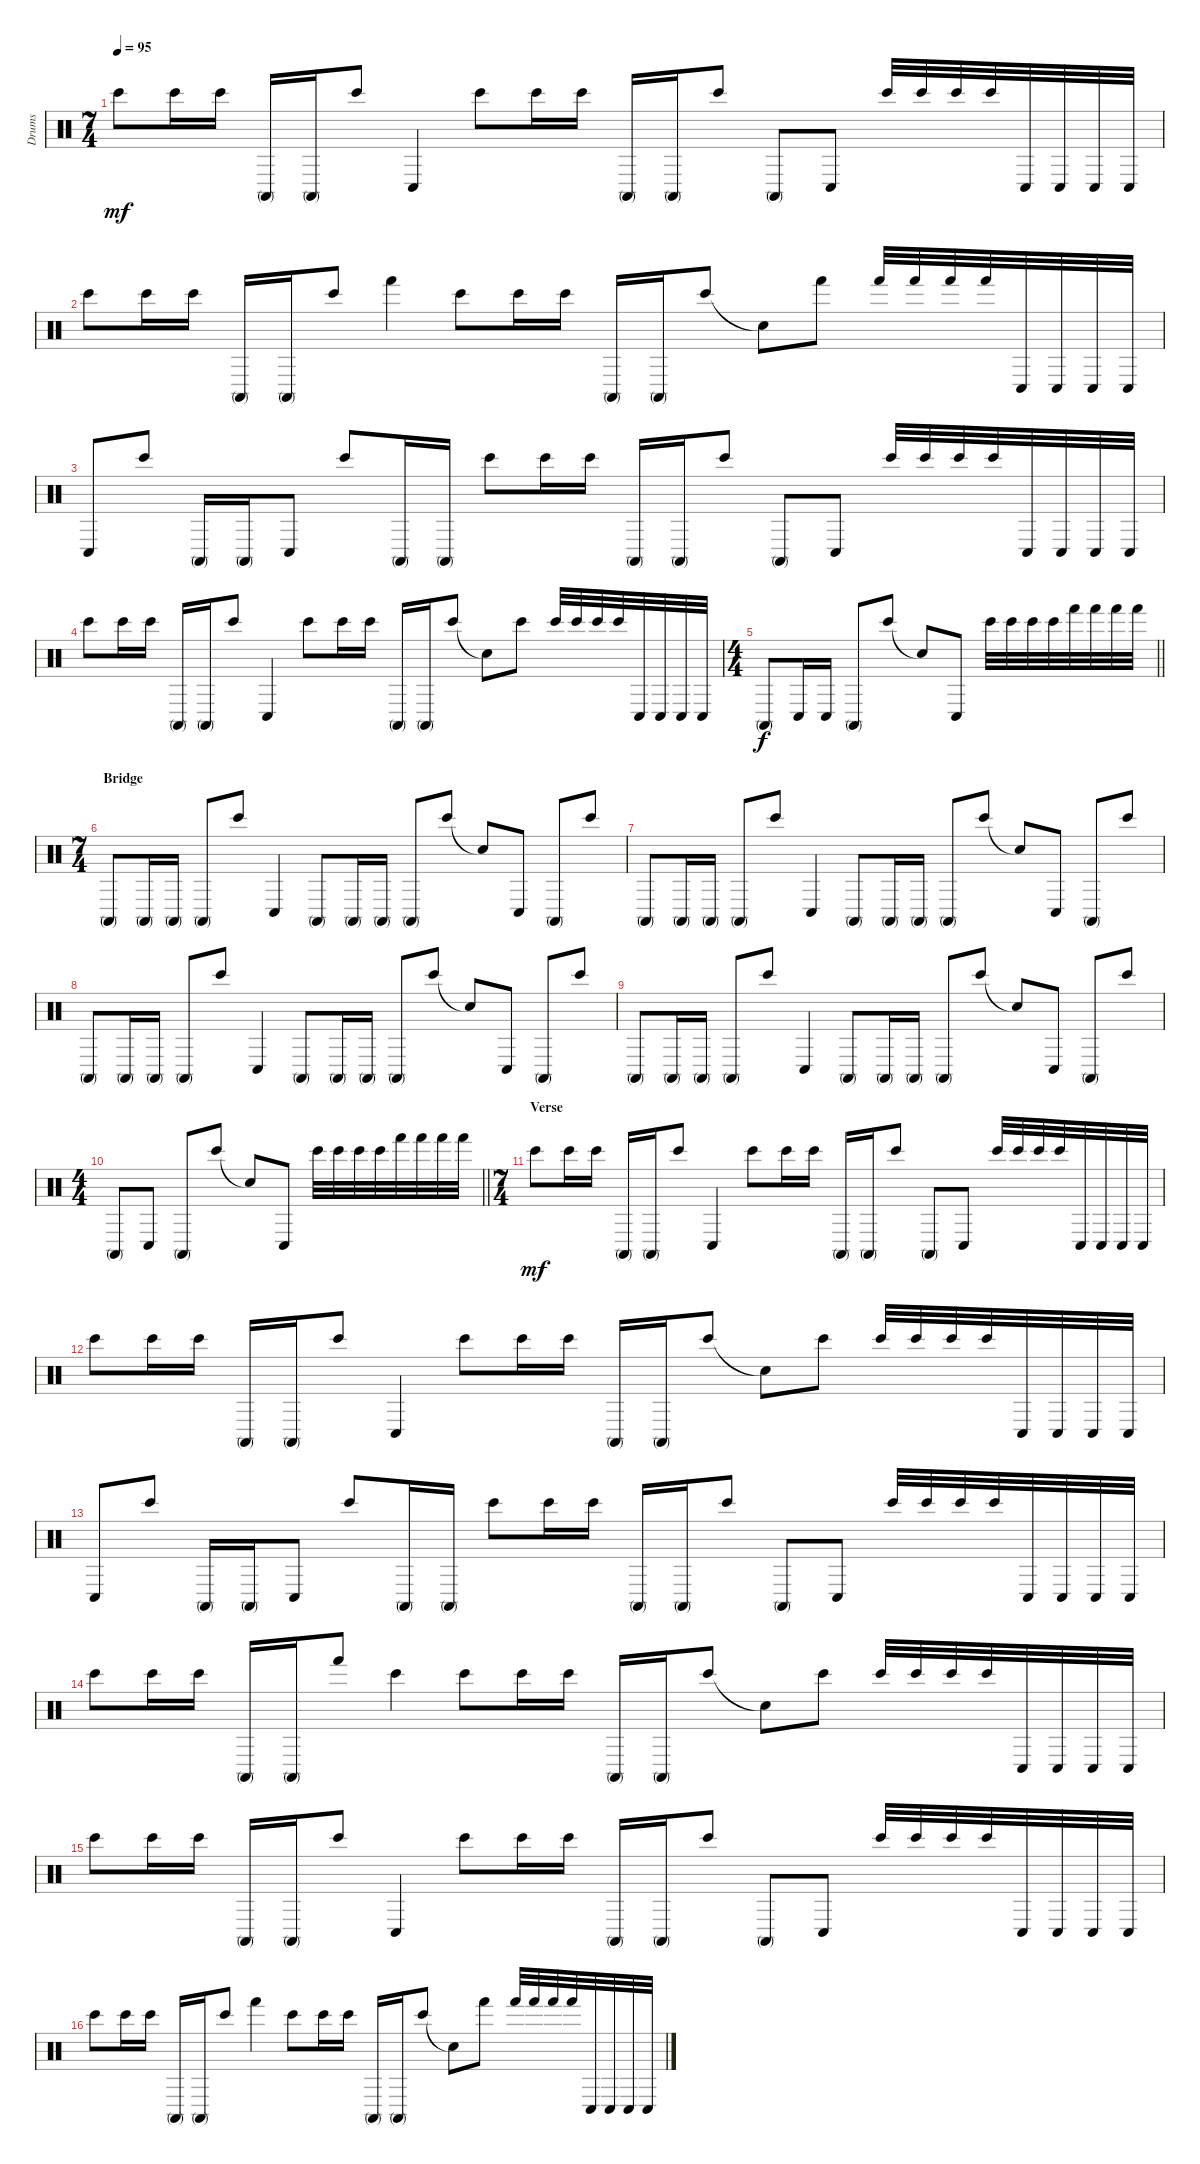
\track ("Drums" "Drums") {instrument percussion}
\staff {score}
\articulation defaults
\ts (7 4)
\tempo 95
\clef neutral
\ks c "Bongo High (hit)".8{dy mf} "Bongo High (hit)".16 "Bongo High (hit)".16 "Conga high (mute)".16 "Conga high (mute)".16 "Bongo High (hit)".8 "Conga low (hit)".4 "Bongo High (hit)".8 "Bongo High (hit)".16 "Bongo High (hit)".16 "Conga high (mute)".16 "Conga high (mute)".16 "Bongo High (hit)".8 "Conga high (mute)".8 "Conga low (hit)".8 "Bongo High (hit)".32 "Bongo High (hit)".32 "Bongo High (hit)".32 "Bongo High (hit)".32 "Conga low (hit)".32 "Conga low (hit)".32 "Conga low (hit)".32 "Conga low (hit)".32
|
"Bongo High (hit)".8 "Bongo High (hit)".16 "Bongo High (hit)".16 "Conga high (mute)".16 "Conga high (mute)".16 "Bongo High (hit)".8 "Hand (hit)".4 "Bongo High (hit)".8 "Bongo High (hit)".16 "Bongo High (hit)".16 "Conga high (mute)".16 "Conga high (mute)".16 "Bongo High (hit)".8 "Snare (hit)"{t}.8 "Hand (hit)".8 "Hand (hit)".32 "Hand (hit)".32 "Hand (hit)".32 "Hand (hit)".32 "Conga low (hit)".32 "Conga low (hit)".32 "Conga low (hit)".32 "Conga low (hit)".32 |
"Conga low (hit)".8 "Bongo High (hit)".8 "Conga high (mute)".16 "Conga high (mute)".16 "Conga low (hit)".8 "Bongo High (hit)".8 "Conga high (mute)".16 "Conga high (mute)".16 "Bongo High (hit)".8 "Bongo High (hit)".16 "Bongo High (hit)".16 "Conga high (mute)".16 "Conga high (mute)".16 "Bongo High (hit)".8 "Conga high (mute)".8 "Conga low (hit)".8 "Bongo High (hit)".32 "Bongo High (hit)".32 "Bongo High (hit)".32 "Bongo High (hit)".32 "Conga low (hit)".32 "Conga low (hit)".32 "Conga low (hit)".32 "Conga low (hit)".32 |
"Bongo High (hit)".8 "Bongo High (hit)".16 "Bongo High (hit)".16 "Conga high (mute)".16 "Conga high (mute)".16 "Bongo High (hit)".8 "Conga low (hit)".4 "Bongo High (hit)".8 "Bongo High (hit)".16 "Bongo High (hit)".16 "Conga high (mute)".16 "Conga high (mute)".16 "Bongo High (hit)".8 "Snare (hit)"{t}.8 "Bongo High (hit)".8 "Bongo High (hit)".32 "Bongo High (hit)".32 "Bongo High (hit)".32 "Bongo High (hit)".32 "Conga low (hit)".32 "Conga low (hit)".32 "Conga low (hit)".32 "Conga low (hit)".32 |
\ts (4 4)
\barLineRight lightlight "Conga high (mute)".8{dy f} "Conga low (hit)".16 "Conga low (hit)".16 "Conga high (mute)".8 "Bongo High (hit)".8 "Snare (hit)"{t}.8 "Conga low (hit)".8 "Bongo High (hit)".32 "Bongo High (hit)".32 "Bongo High (hit)".32 "Bongo High (hit)".32 "Hand (hit)".32 "Hand (hit)".32 "Hand (hit)".32 "Hand (hit)".32
|
\ts (7 4)
\section ("" "Bridge")
"Conga high (mute)".8 "Conga high (mute)".16 "Conga high (mute)".16 "Conga high (mute)".8 "Bongo High (hit)".8 "Conga low (hit)".4 "Conga high (mute)".8 "Conga high (mute)".16 "Conga high (mute)".16 "Conga high (mute)".8 "Bongo High (hit)".8 "Snare (hit)"{t}.8 "Conga low (hit)".8 "Conga high (mute)".8 "Bongo High (hit)".8 |
"Conga high (mute)".8 "Conga high (mute)".16 "Conga high (mute)".16 "Conga high (mute)".8 "Bongo High (hit)".8 "Conga low (hit)".4 "Conga high (mute)".8 "Conga high (mute)".16 "Conga high (mute)".16 "Conga high (mute)".8 "Bongo High (hit)".8 "Snare (hit)"{t}.8 "Conga low (hit)".8 "Conga high (mute)".8 "Bongo High (hit)".8 |
"Conga high (mute)".8 "Conga high (mute)".16 "Conga high (mute)".16 "Conga high (mute)".8 "Bongo High (hit)".8 "Conga low (hit)".4 "Conga high (mute)".8 "Conga high (mute)".16 "Conga high (mute)".16 "Conga high (mute)".8 "Bongo High (hit)".8 "Snare (hit)"{t}.8 "Conga low (hit)".8 "Conga high (mute)".8 "Bongo High (hit)".8 |
"Conga high (mute)".8 "Conga high (mute)".16 "Conga high (mute)".16 "Conga high (mute)".8 "Bongo High (hit)".8 "Conga low (hit)".4 "Conga high (mute)".8 "Conga high (mute)".16 "Conga high (mute)".16 "Conga high (mute)".8 "Bongo High (hit)".8 "Snare (hit)"{t}.8 "Conga low (hit)".8 "Conga high (mute)".8 "Bongo High (hit)".8 |
\ts (4 4)
\barLineRight lightlight "Conga high (mute)".8 "Conga low (hit)".8 "Conga high (mute)".8 "Bongo High (hit)".8 "Snare (hit)"{t}.8 "Conga low (hit)".8 "Bongo High (hit)".32 "Bongo High (hit)".32 "Bongo High (hit)".32 "Bongo High (hit)".32 "Hand (hit)".32 "Hand (hit)".32 "Hand (hit)".32 "Hand (hit)".32
|
\ts (7 4)
\section ("" "Verse")
"Bongo High (hit)".8{dy mf} "Bongo High (hit)".16 "Bongo High (hit)".16 "Conga high (mute)".16 "Conga high (mute)".16 "Bongo High (hit)".8 "Conga low (hit)".4 "Bongo High (hit)".8 "Bongo High (hit)".16 "Bongo High (hit)".16 "Conga high (mute)".16 "Conga high (mute)".16 "Bongo High (hit)".8 "Conga high (mute)".8 "Conga low (hit)".8 "Bongo High (hit)".32 "Bongo High (hit)".32 "Bongo High (hit)".32 "Bongo High (hit)".32 "Conga low (hit)".32 "Conga low (hit)".32 "Conga low (hit)".32 "Conga low (hit)".32 |
"Bongo High (hit)".8 "Bongo High (hit)".16 "Bongo High (hit)".16 "Conga high (mute)".16 "Conga high (mute)".16 "Bongo High (hit)".8 "Conga low (hit)".4 "Bongo High (hit)".8 "Bongo High (hit)".16 "Bongo High (hit)".16 "Conga high (mute)".16 "Conga high (mute)".16 "Bongo High (hit)".8 "Snare (hit)"{t}.8 "Bongo High (hit)".8 "Bongo High (hit)".32 "Bongo High (hit)".32 "Bongo High (hit)".32 "Bongo High (hit)".32 "Conga low (hit)".32 "Conga low (hit)".32 "Conga low (hit)".32 "Conga low (hit)".32 |
"Conga low (hit)".8 "Bongo High (hit)".8 "Conga high (mute)".16 "Conga high (mute)".16 "Conga low (hit)".8 "Bongo High (hit)".8 "Conga high (mute)".16 "Conga high (mute)".16 "Bongo High (hit)".8 "Bongo High (hit)".16 "Bongo High (hit)".16 "Conga high (mute)".16 "Conga high (mute)".16 "Bongo High (hit)".8 "Conga high (mute)".8 "Conga low (hit)".8 "Bongo High (hit)".32 "Bongo High (hit)".32 "Bongo High (hit)".32 "Bongo High (hit)".32 "Conga low (hit)".32 "Conga low (hit)".32 "Conga low (hit)".32 "Conga low (hit)".32 |
"Bongo High (hit)".8 "Bongo High (hit)".16 "Bongo High (hit)".16 "Conga high (mute)".16 "Conga high (mute)".16 "Hand (hit)".8 "Bongo High (hit)".4 "Bongo High (hit)".8 "Bongo High (hit)".16 "Bongo High (hit)".16 "Conga high (mute)".16 "Conga high (mute)".16 "Bongo High (hit)".8 "Snare (hit)"{t}.8 "Bongo High (hit)".8 "Bongo High (hit)".32 "Bongo High (hit)".32 "Bongo High (hit)".32 "Bongo High (hit)".32 "Conga low (hit)".32 "Conga low (hit)".32 "Conga low (hit)".32 "Conga low (hit)".32 |
"Bongo High (hit)".8 "Bongo High (hit)".16 "Bongo High (hit)".16 "Conga high (mute)".16 "Conga high (mute)".16 "Bongo High (hit)".8 "Conga low (hit)".4 "Bongo High (hit)".8 "Bongo High (hit)".16 "Bongo High (hit)".16 "Conga high (mute)".16 "Conga high (mute)".16 "Bongo High (hit)".8 "Conga high (mute)".8 "Conga low (hit)".8 "Bongo High (hit)".32 "Bongo High (hit)".32 "Bongo High (hit)".32 "Bongo High (hit)".32 "Conga low (hit)".32 "Conga low (hit)".32 "Conga low (hit)".32 "Conga low (hit)".32 |
"Bongo High (hit)".8 "Bongo High (hit)".16 "Bongo High (hit)".16 "Conga high (mute)".16 "Conga high (mute)".16 "Bongo High (hit)".8 "Hand (hit)".4 "Bongo High (hit)".8 "Bongo High (hit)".16 "Bongo High (hit)".16 "Conga high (mute)".16 "Conga high (mute)".16 "Bongo High (hit)".8 "Snare (hit)"{t}.8 "Hand (hit)".8 "Hand (hit)".32 "Hand (hit)".32 "Hand (hit)".32 "Hand (hit)".32 "Conga low (hit)".32 "Conga low (hit)".32 "Conga low (hit)".32 "Conga low (hit)".32
